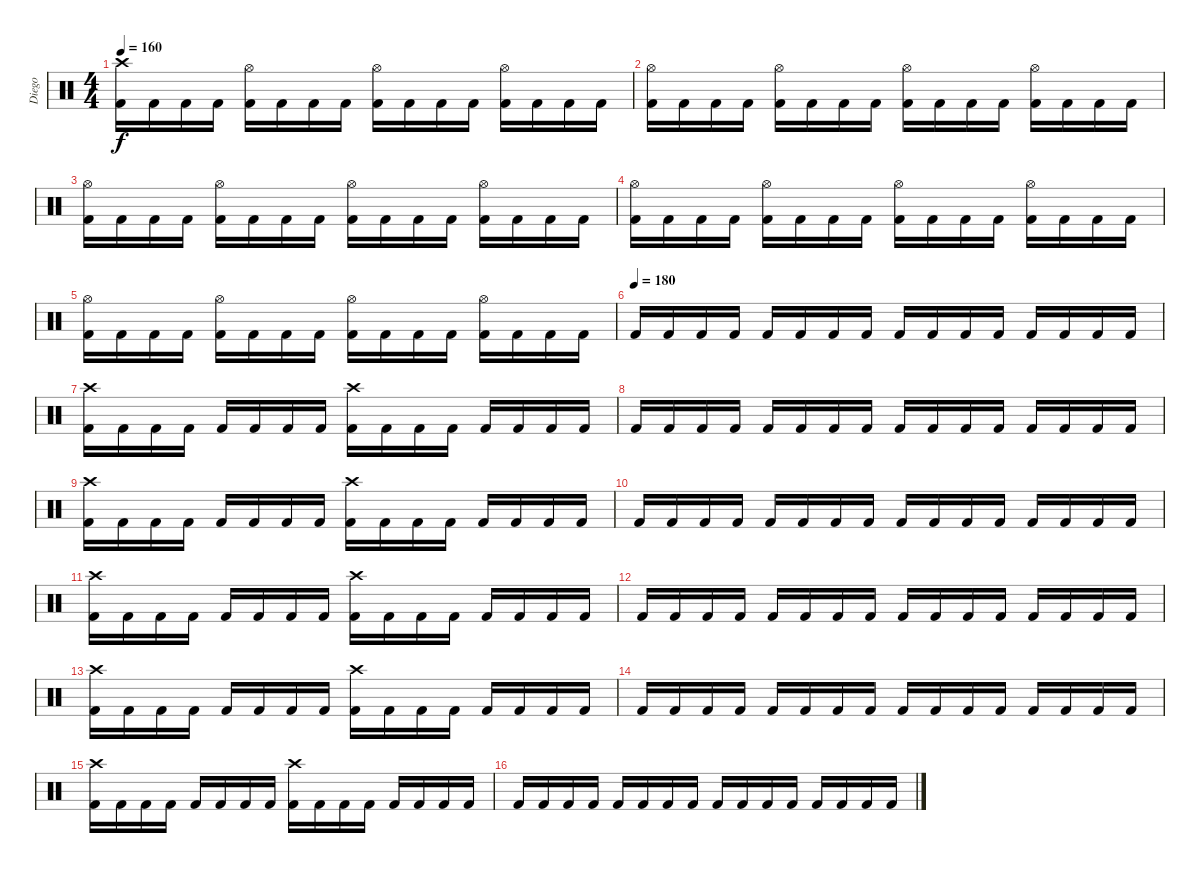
\track ("Diego" "Diego") {instrument percussion}
\staff {score}
\articulation defaults
\ts (4 4)
\tempo 160
\clef neutral
\ks c
("Crash high (hit)" "Kick (hit) 2").16{dy f} "Kick (hit) 2".16 "Kick (hit) 2".16 "Kick (hit) 2".16 ("Hi-Hat (open)" "Kick (hit) 2").16 "Kick (hit) 2".16 "Kick (hit) 2".16 "Kick (hit) 2".16 ("Hi-Hat (open)" "Kick (hit) 2").16 "Kick (hit) 2".16 "Kick (hit) 2".16 "Kick (hit) 2".16 ("Hi-Hat (open)" "Kick (hit) 2").16 "Kick (hit) 2".16 "Kick (hit) 2".16 "Kick (hit) 2".16 |
("Hi-Hat (open)" "Kick (hit) 2").16 "Kick (hit) 2".16 "Kick (hit) 2".16 "Kick (hit) 2".16 ("Hi-Hat (open)" "Kick (hit) 2").16 "Kick (hit) 2".16 "Kick (hit) 2".16 "Kick (hit) 2".16 ("Hi-Hat (open)" "Kick (hit) 2").16 "Kick (hit) 2".16 "Kick (hit) 2".16 "Kick (hit) 2".16 ("Hi-Hat (open)" "Kick (hit) 2").16 "Kick (hit) 2".16 "Kick (hit) 2".16 "Kick (hit) 2".16 |
("Hi-Hat (open)" "Kick (hit) 2").16 "Kick (hit) 2".16 "Kick (hit) 2".16 "Kick (hit) 2".16 ("Hi-Hat (open)" "Kick (hit) 2").16 "Kick (hit) 2".16 "Kick (hit) 2".16 "Kick (hit) 2".16 ("Hi-Hat (open)" "Kick (hit) 2").16 "Kick (hit) 2".16 "Kick (hit) 2".16 "Kick (hit) 2".16 ("Hi-Hat (open)" "Kick (hit) 2").16 "Kick (hit) 2".16 "Kick (hit) 2".16 "Kick (hit) 2".16 |
("Hi-Hat (open)" "Kick (hit) 2").16 "Kick (hit) 2".16 "Kick (hit) 2".16 "Kick (hit) 2".16 ("Hi-Hat (open)" "Kick (hit) 2").16 "Kick (hit) 2".16 "Kick (hit) 2".16 "Kick (hit) 2".16 ("Hi-Hat (open)" "Kick (hit) 2").16 "Kick (hit) 2".16 "Kick (hit) 2".16 "Kick (hit) 2".16 ("Hi-Hat (open)" "Kick (hit) 2").16 "Kick (hit) 2".16 "Kick (hit) 2".16 "Kick (hit) 2".16 |
("Hi-Hat (open)" "Kick (hit) 2").16 "Kick (hit) 2".16 "Kick (hit) 2".16 "Kick (hit) 2".16 ("Hi-Hat (open)" "Kick (hit) 2").16 "Kick (hit) 2".16 "Kick (hit) 2".16 "Kick (hit) 2".16 ("Hi-Hat (open)" "Kick (hit) 2").16 "Kick (hit) 2".16 "Kick (hit) 2".16 "Kick (hit) 2".16 ("Hi-Hat (open)" "Kick (hit) 2").16 "Kick (hit) 2".16 "Kick (hit) 2".16 "Kick (hit) 2".16 |
\tempo (180)
"Kick (hit) 2".16 "Kick (hit) 2".16 "Kick (hit) 2".16 "Kick (hit) 2".16 "Kick (hit) 2".16 "Kick (hit) 2".16 "Kick (hit) 2".16 "Kick (hit) 2".16 "Kick (hit) 2".16 "Kick (hit) 2".16 "Kick (hit) 2".16 "Kick (hit) 2".16 "Kick (hit) 2".16 "Kick (hit) 2".16 "Kick (hit) 2".16 "Kick (hit) 2".16 |
("Crash high (hit)" "Kick (hit) 2").16 "Kick (hit) 2".16 "Kick (hit) 2".16 "Kick (hit) 2".16 "Kick (hit) 2".16 "Kick (hit) 2".16 "Kick (hit) 2".16 "Kick (hit) 2".16 ("Crash high (hit)" "Kick (hit) 2").16 "Kick (hit) 2".16 "Kick (hit) 2".16 "Kick (hit) 2".16 "Kick (hit) 2".16 "Kick (hit) 2".16 "Kick (hit) 2".16 "Kick (hit) 2".16 |
"Kick (hit) 2".16 "Kick (hit) 2".16 "Kick (hit) 2".16 "Kick (hit) 2".16 "Kick (hit) 2".16 "Kick (hit) 2".16 "Kick (hit) 2".16 "Kick (hit) 2".16 "Kick (hit) 2".16 "Kick (hit) 2".16 "Kick (hit) 2".16 "Kick (hit) 2".16 "Kick (hit) 2".16 "Kick (hit) 2".16 "Kick (hit) 2".16 "Kick (hit) 2".16 |
("Crash high (hit)" "Kick (hit) 2").16 "Kick (hit) 2".16 "Kick (hit) 2".16 "Kick (hit) 2".16 "Kick (hit) 2".16 "Kick (hit) 2".16 "Kick (hit) 2".16 "Kick (hit) 2".16 ("Crash high (hit)" "Kick (hit) 2").16 "Kick (hit) 2".16 "Kick (hit) 2".16 "Kick (hit) 2".16 "Kick (hit) 2".16 "Kick (hit) 2".16 "Kick (hit) 2".16 "Kick (hit) 2".16 |
"Kick (hit) 2".16 "Kick (hit) 2".16 "Kick (hit) 2".16 "Kick (hit) 2".16 "Kick (hit) 2".16 "Kick (hit) 2".16 "Kick (hit) 2".16 "Kick (hit) 2".16 "Kick (hit) 2".16 "Kick (hit) 2".16 "Kick (hit) 2".16 "Kick (hit) 2".16 "Kick (hit) 2".16 "Kick (hit) 2".16 "Kick (hit) 2".16 "Kick (hit) 2".16 |
("Crash high (hit)" "Kick (hit) 2").16 "Kick (hit) 2".16 "Kick (hit) 2".16 "Kick (hit) 2".16 "Kick (hit) 2".16 "Kick (hit) 2".16 "Kick (hit) 2".16 "Kick (hit) 2".16 ("Crash high (hit)" "Kick (hit) 2").16 "Kick (hit) 2".16 "Kick (hit) 2".16 "Kick (hit) 2".16 "Kick (hit) 2".16 "Kick (hit) 2".16 "Kick (hit) 2".16 "Kick (hit) 2".16 |
"Kick (hit) 2".16 "Kick (hit) 2".16 "Kick (hit) 2".16 "Kick (hit) 2".16 "Kick (hit) 2".16 "Kick (hit) 2".16 "Kick (hit) 2".16 "Kick (hit) 2".16 "Kick (hit) 2".16 "Kick (hit) 2".16 "Kick (hit) 2".16 "Kick (hit) 2".16 "Kick (hit) 2".16 "Kick (hit) 2".16 "Kick (hit) 2".16 "Kick (hit) 2".16 |
("Crash high (hit)" "Kick (hit) 2").16 "Kick (hit) 2".16 "Kick (hit) 2".16 "Kick (hit) 2".16 "Kick (hit) 2".16 "Kick (hit) 2".16 "Kick (hit) 2".16 "Kick (hit) 2".16 ("Crash high (hit)" "Kick (hit) 2").16 "Kick (hit) 2".16 "Kick (hit) 2".16 "Kick (hit) 2".16 "Kick (hit) 2".16 "Kick (hit) 2".16 "Kick (hit) 2".16 "Kick (hit) 2".16 |
"Kick (hit) 2".16 "Kick (hit) 2".16 "Kick (hit) 2".16 "Kick (hit) 2".16 "Kick (hit) 2".16 "Kick (hit) 2".16 "Kick (hit) 2".16 "Kick (hit) 2".16 "Kick (hit) 2".16 "Kick (hit) 2".16 "Kick (hit) 2".16 "Kick (hit) 2".16 "Kick (hit) 2".16 "Kick (hit) 2".16 "Kick (hit) 2".16 "Kick (hit) 2".16 |
("Crash high (hit)" "Kick (hit) 2").16 "Kick (hit) 2".16 "Kick (hit) 2".16 "Kick (hit) 2".16 "Kick (hit) 2".16 "Kick (hit) 2".16 "Kick (hit) 2".16 "Kick (hit) 2".16 ("Crash high (hit)" "Kick (hit) 2").16 "Kick (hit) 2".16 "Kick (hit) 2".16 "Kick (hit) 2".16 "Kick (hit) 2".16 "Kick (hit) 2".16 "Kick (hit) 2".16 "Kick (hit) 2".16 |
"Kick (hit) 2".16 "Kick (hit) 2".16 "Kick (hit) 2".16 "Kick (hit) 2".16 "Kick (hit) 2".16 "Kick (hit) 2".16 "Kick (hit) 2".16 "Kick (hit) 2".16 "Kick (hit) 2".16 "Kick (hit) 2".16 "Kick (hit) 2".16 "Kick (hit) 2".16 "Kick (hit) 2".16 "Kick (hit) 2".16 "Kick (hit) 2".16 "Kick (hit) 2".16
